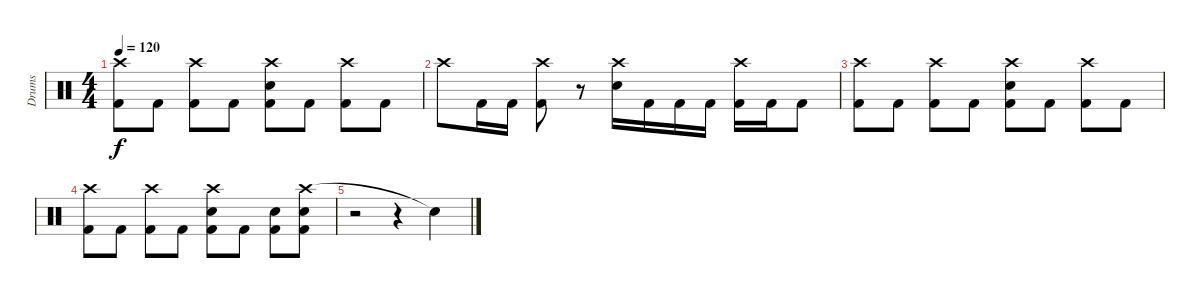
\track ("Drums" "Drums") {instrument percussion}
\staff {score}
\articulation defaults
\ts (4 4)
\tempo 120
\clef neutral
\ks c
("Crash high (hit)" "Kick (hit) 2").8{dy f} "Kick (hit) 2".8 ("Crash high (hit)" "Kick (hit) 2").8 "Kick (hit) 2".8 ("Crash high (hit)" "Electric Snare (hit)" "Kick (hit) 2").8 "Kick (hit) 2".8 ("Crash high (hit)" "Kick (hit) 2").8 "Kick (hit) 2".8 |
"Crash high (hit)".8 "Kick (hit) 2".16 "Kick (hit) 2".16 ("Crash high (hit)" "Kick (hit) 2").8 r.8 ("Crash high (hit)" "Electric Snare (hit)").16 "Kick (hit) 2".16 "Kick (hit) 2".16 "Kick (hit) 2".16 ("Crash high (hit)" "Kick (hit) 2").16 "Kick (hit) 2".16 "Kick (hit) 2".8 |
("Crash high (hit)" "Kick (hit) 2").8 "Kick (hit) 2".8 ("Crash high (hit)" "Kick (hit) 2").8 "Kick (hit) 2".8 ("Crash high (hit)" "Electric Snare (hit)" "Kick (hit) 2").8 "Kick (hit) 2".8 ("Crash high (hit)" "Kick (hit) 2").8 "Kick (hit) 2".8 |
("Crash high (hit)" "Kick (hit) 2").8 "Kick (hit) 2".8 ("Crash high (hit)" "Kick (hit) 2").8 "Kick (hit) 2".8 ("Crash high (hit)" "Electric Snare (hit)" "Kick (hit) 2").8 "Kick (hit) 2".8 ("Electric Snare (hit)" "Kick (hit) 2").8 ("Crash high (hit)" "Electric Snare (hit)" "Kick (hit) 2").8 |
r.2 r.4 "Snare (hit)"{t}.4
